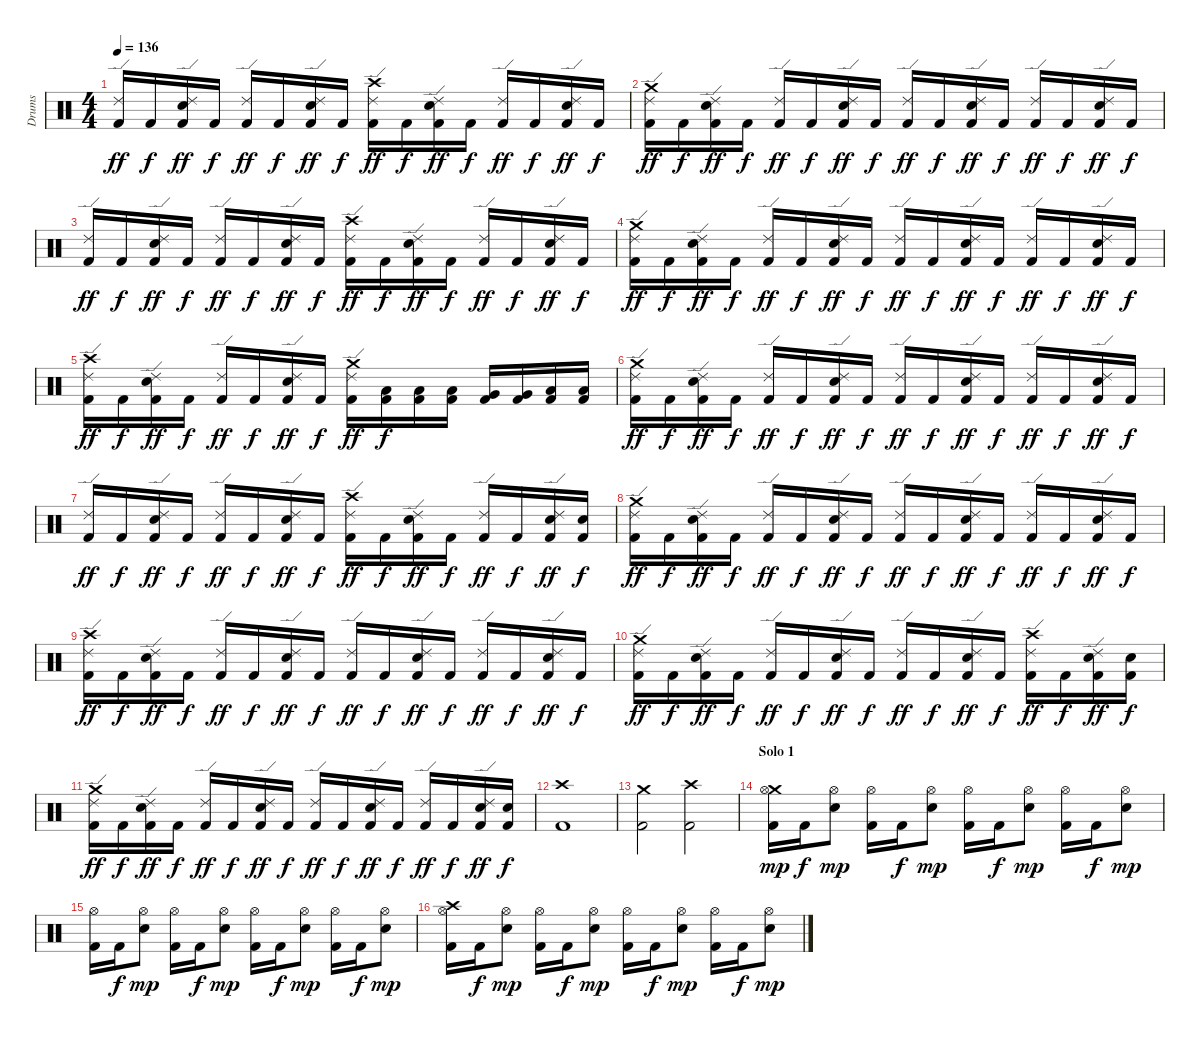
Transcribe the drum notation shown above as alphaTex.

\track ("Drums" "Drums") {instrument percussion}
\staff {score}
\articulation defaults
\ts (4 4)
\tempo 136
\clef neutral
\ks c
("Ride (edge) 2" "Kick (hit) 2").16{dy ff} "Kick (hit) 2".16{dy f} ("Ride (edge) 2" "Snare (hit) 2" "Kick (hit) 2").16{dy ff} "Kick (hit) 2".16{dy f} ("Ride (edge) 2" "Kick (hit) 2").16{dy ff} "Kick (hit) 2".16{dy f} ("Ride (edge) 2" "Snare (hit) 2" "Kick (hit) 2").16{dy ff} "Kick (hit) 2".16{dy f} ("Crash high (hit)" "Ride (edge) 2" "Kick (hit) 2").16{dy ff} "Kick (hit) 2".16{dy f} ("Ride (edge) 2" "Snare (hit) 2" "Kick (hit) 2").16{dy ff} "Kick (hit) 2".16{dy f} ("Ride (edge) 2" "Kick (hit) 2").16{dy ff} "Kick (hit) 2".16{dy f} ("Ride (edge) 2" "Snare (hit) 2" "Kick (hit) 2").16{dy ff} "Kick (hit) 2".16{dy f} |
("Crash medium (hit)" "Ride (edge) 2" "Kick (hit) 2").16{dy ff} "Kick (hit) 2".16{dy f} ("Ride (edge) 2" "Snare (hit) 2" "Kick (hit) 2").16{dy ff} "Kick (hit) 2".16{dy f} ("Ride (edge) 2" "Kick (hit) 2").16{dy ff} "Kick (hit) 2".16{dy f} ("Ride (edge) 2" "Snare (hit) 2" "Kick (hit) 2").16{dy ff} "Kick (hit) 2".16{dy f} ("Ride (edge) 2" "Kick (hit) 2").16{dy ff} "Kick (hit) 2".16{dy f} ("Ride (edge) 2" "Snare (hit) 2" "Kick (hit) 2").16{dy ff} "Kick (hit) 2".16{dy f} ("Ride (edge) 2" "Kick (hit) 2").16{dy ff} "Kick (hit) 2".16{dy f} ("Ride (edge) 2" "Snare (hit) 2" "Kick (hit) 2").16{dy ff} "Kick (hit) 2".16{dy f} |
("Ride (edge) 2" "Kick (hit) 2").16{dy ff} "Kick (hit) 2".16{dy f} ("Ride (edge) 2" "Snare (hit) 2" "Kick (hit) 2").16{dy ff} "Kick (hit) 2".16{dy f} ("Ride (edge) 2" "Kick (hit) 2").16{dy ff} "Kick (hit) 2".16{dy f} ("Ride (edge) 2" "Snare (hit) 2" "Kick (hit) 2").16{dy ff} "Kick (hit) 2".16{dy f} ("Crash high (hit)" "Ride (edge) 2" "Kick (hit) 2").16{dy ff} "Kick (hit) 2".16{dy f} ("Ride (edge) 2" "Snare (hit) 2" "Kick (hit) 2").16{dy ff} "Kick (hit) 2".16{dy f} ("Ride (edge) 2" "Kick (hit) 2").16{dy ff} "Kick (hit) 2".16{dy f} ("Ride (edge) 2" "Snare (hit) 2" "Kick (hit) 2").16{dy ff} "Kick (hit) 2".16{dy f} |
("Crash medium (hit)" "Ride (edge) 2" "Kick (hit) 2").16{dy ff} "Kick (hit) 2".16{dy f} ("Ride (edge) 2" "Snare (hit) 2" "Kick (hit) 2").16{dy ff} "Kick (hit) 2".16{dy f} ("Ride (edge) 2" "Kick (hit) 2").16{dy ff} "Kick (hit) 2".16{dy f} ("Ride (edge) 2" "Snare (hit) 2" "Kick (hit) 2").16{dy ff} "Kick (hit) 2".16{dy f} ("Ride (edge) 2" "Kick (hit) 2").16{dy ff} "Kick (hit) 2".16{dy f} ("Ride (edge) 2" "Snare (hit) 2" "Kick (hit) 2").16{dy ff} "Kick (hit) 2".16{dy f} ("Ride (edge) 2" "Kick (hit) 2").16{dy ff} "Kick (hit) 2".16{dy f} ("Ride (edge) 2" "Snare (hit) 2" "Kick (hit) 2").16{dy ff} "Kick (hit) 2".16{dy f} |
("Crash high (hit)" "Ride (edge) 2" "Kick (hit) 2").16{dy ff} "Kick (hit) 2".16{dy f} ("Ride (edge) 2" "Snare (hit) 2" "Kick (hit) 2").16{dy ff} "Kick (hit) 2".16{dy f} ("Ride (edge) 2" "Kick (hit) 2").16{dy ff} "Kick (hit) 2".16{dy f} ("Ride (edge) 2" "Snare (hit) 2" "Kick (hit) 2").16{dy ff} "Kick (hit) 2".16{dy f} ("Crash medium (hit)" "Ride (edge) 2" "Kick (hit) 2").16{dy ff} ("Low Tom (hit)" "Kick (hit) 2").16{dy f} ("Low Tom (hit)" "Kick (hit) 2").16 ("Low Tom (hit)" "Kick (hit) 2").16 ("Very Low Tom (hit)" "Kick (hit) 2").16 ("Very Low Tom (hit)" "Kick (hit) 2").16 ("Low Floor Tom (hit)" "Kick (hit) 2").16 ("Low Floor Tom (hit)" "Kick (hit) 2").16 |
("Crash medium (hit)" "Ride (edge) 2" "Kick (hit) 2").16{dy ff} "Kick (hit) 2".16{dy f} ("Ride (edge) 2" "Snare (hit) 2" "Kick (hit) 2").16{dy ff} "Kick (hit) 2".16{dy f} ("Ride (edge) 2" "Kick (hit) 2").16{dy ff} "Kick (hit) 2".16{dy f} ("Ride (edge) 2" "Snare (hit) 2" "Kick (hit) 2").16{dy ff} "Kick (hit) 2".16{dy f} ("Ride (edge) 2" "Kick (hit) 2").16{dy ff} "Kick (hit) 2".16{dy f} ("Ride (edge) 2" "Snare (hit) 2" "Kick (hit) 2").16{dy ff} "Kick (hit) 2".16{dy f} ("Ride (edge) 2" "Kick (hit) 2").16{dy ff} "Kick (hit) 2".16{dy f} ("Ride (edge) 2" "Snare (hit) 2" "Kick (hit) 2").16{dy ff} "Kick (hit) 2".16{dy f} |
("Ride (edge) 2" "Kick (hit) 2").16{dy ff} "Kick (hit) 2".16{dy f} ("Ride (edge) 2" "Snare (hit) 2" "Kick (hit) 2").16{dy ff} "Kick (hit) 2".16{dy f} ("Ride (edge) 2" "Kick (hit) 2").16{dy ff} "Kick (hit) 2".16{dy f} ("Ride (edge) 2" "Snare (hit) 2" "Kick (hit) 2").16{dy ff} "Kick (hit) 2".16{dy f} ("Crash high (hit)" "Ride (edge) 2" "Kick (hit) 2").16{dy ff} "Kick (hit) 2".16{dy f} ("Ride (edge) 2" "Snare (hit) 2" "Kick (hit) 2").16{dy ff} "Kick (hit) 2".16{dy f} ("Ride (edge) 2" "Kick (hit) 2").16{dy ff} "Kick (hit) 2".16{dy f} ("Ride (edge) 2" "Snare (hit) 2" "Kick (hit) 2").16{dy ff} ("Snare (hit) 2" "Kick (hit) 2").16{dy f} |
("Crash medium (hit)" "Ride (edge) 2" "Kick (hit) 2").16{dy ff} "Kick (hit) 2".16{dy f} ("Ride (edge) 2" "Snare (hit) 2" "Kick (hit) 2").16{dy ff} "Kick (hit) 2".16{dy f} ("Ride (edge) 2" "Kick (hit) 2").16{dy ff} "Kick (hit) 2".16{dy f} ("Ride (edge) 2" "Snare (hit) 2" "Kick (hit) 2").16{dy ff} "Kick (hit) 2".16{dy f} ("Ride (edge) 2" "Kick (hit) 2").16{dy ff} "Kick (hit) 2".16{dy f} ("Ride (edge) 2" "Snare (hit) 2" "Kick (hit) 2").16{dy ff} "Kick (hit) 2".16{dy f} ("Ride (edge) 2" "Kick (hit) 2").16{dy ff} "Kick (hit) 2".16{dy f} ("Ride (edge) 2" "Snare (hit) 2" "Kick (hit) 2").16{dy ff} "Kick (hit) 2".16{dy f} |
("Crash high (hit)" "Ride (edge) 2" "Kick (hit) 2").16{dy ff} "Kick (hit) 2".16{dy f} ("Ride (edge) 2" "Snare (hit) 2" "Kick (hit) 2").16{dy ff} "Kick (hit) 2".16{dy f} ("Ride (edge) 2" "Kick (hit) 2").16{dy ff} "Kick (hit) 2".16{dy f} ("Ride (edge) 2" "Snare (hit) 2" "Kick (hit) 2").16{dy ff} "Kick (hit) 2".16{dy f} ("Ride (edge) 2" "Kick (hit) 2").16{dy ff} "Kick (hit) 2".16{dy f} ("Ride (edge) 2" "Snare (hit) 2" "Kick (hit) 2").16{dy ff} "Kick (hit) 2".16{dy f} ("Ride (edge) 2" "Kick (hit) 2").16{dy ff} "Kick (hit) 2".16{dy f} ("Ride (edge) 2" "Snare (hit) 2" "Kick (hit) 2").16{dy ff} "Kick (hit) 2".16{dy f} |
("Crash medium (hit)" "Ride (edge) 2" "Kick (hit) 2").16{dy ff} "Kick (hit) 2".16{dy f} ("Ride (edge) 2" "Snare (hit) 2" "Kick (hit) 2").16{dy ff} "Kick (hit) 2".16{dy f} ("Ride (edge) 2" "Kick (hit) 2").16{dy ff} "Kick (hit) 2".16{dy f} ("Ride (edge) 2" "Snare (hit) 2" "Kick (hit) 2").16{dy ff} "Kick (hit) 2".16{dy f} ("Ride (edge) 2" "Kick (hit) 2").16{dy ff} "Kick (hit) 2".16{dy f} ("Ride (edge) 2" "Snare (hit) 2" "Kick (hit) 2").16{dy ff} "Kick (hit) 2".16{dy f} ("Crash high (hit)" "Ride (edge) 2" "Kick (hit) 2").16{dy ff} "Kick (hit) 2".16{dy f} ("Ride (edge) 2" "Snare (hit) 2" "Kick (hit) 2").16{dy ff} ("Snare (hit) 2" "Kick (hit) 2").16{dy f} |
("Crash medium (hit)" "Ride (edge) 2" "Kick (hit) 2").16{dy ff} "Kick (hit) 2".16{dy f} ("Ride (edge) 2" "Snare (hit) 2" "Kick (hit) 2").16{dy ff} "Kick (hit) 2".16{dy f} ("Ride (edge) 2" "Kick (hit) 2").16{dy ff} "Kick (hit) 2".16{dy f} ("Ride (edge) 2" "Snare (hit) 2" "Kick (hit) 2").16{dy ff} "Kick (hit) 2".16{dy f} ("Ride (edge) 2" "Kick (hit) 2").16{dy ff} "Kick (hit) 2".16{dy f} ("Ride (edge) 2" "Snare (hit) 2" "Kick (hit) 2").16{dy ff} "Kick (hit) 2".16{dy f} ("Ride (edge) 2" "Kick (hit) 2").16{dy ff} "Kick (hit) 2".16{dy f} ("Ride (edge) 2" "Snare (hit) 2" "Kick (hit) 2").16{dy ff} ("Snare (hit) 2" "Kick (hit) 2").16{dy f} |
("Crash high (hit)" "Kick (hit) 2").1 |
("Crash medium (hit)" "Kick (hit) 2").2 ("Crash high (hit)" "Kick (hit) 2").2 |
\section ("" "Solo 1")
("Crash medium (hit)" "Hi-Hat (open)" "Kick (hit) 2").16{dy mp} "Kick (hit) 2".16{dy f} ("Hi-Hat (open)" "Snare (hit) 2").8{dy mp} ("Hi-Hat (open)" "Kick (hit) 2").16 "Kick (hit) 2".16{dy f} ("Hi-Hat (open)" "Snare (hit) 2").8{dy mp} ("Hi-Hat (open)" "Kick (hit) 2").16 "Kick (hit) 2".16{dy f} ("Hi-Hat (open)" "Snare (hit) 2").8{dy mp} ("Hi-Hat (open)" "Kick (hit) 2").16 "Kick (hit) 2".16{dy f} ("Hi-Hat (open)" "Snare (hit) 2").8{dy mp} |
("Hi-Hat (open)" "Kick (hit) 2").16 "Kick (hit) 2".16{dy f} ("Hi-Hat (open)" "Snare (hit) 2").8{dy mp} ("Hi-Hat (open)" "Kick (hit) 2").16 "Kick (hit) 2".16{dy f} ("Hi-Hat (open)" "Snare (hit) 2").8{dy mp} ("Hi-Hat (open)" "Kick (hit) 2").16 "Kick (hit) 2".16{dy f} ("Hi-Hat (open)" "Snare (hit) 2").8{dy mp} ("Hi-Hat (open)" "Kick (hit) 2").16 "Kick (hit) 2".16{dy f} ("Hi-Hat (open)" "Snare (hit) 2").8{dy mp} |
("Crash high (hit)" "Hi-Hat (open)" "Kick (hit) 2").16 "Kick (hit) 2".16{dy f} ("Hi-Hat (open)" "Snare (hit) 2").8{dy mp} ("Hi-Hat (open)" "Kick (hit) 2").16 "Kick (hit) 2".16{dy f} ("Hi-Hat (open)" "Snare (hit) 2").8{dy mp} ("Hi-Hat (open)" "Kick (hit) 2").16 "Kick (hit) 2".16{dy f} ("Hi-Hat (open)" "Snare (hit) 2").8{dy mp} ("Hi-Hat (open)" "Kick (hit) 2").16 "Kick (hit) 2".16{dy f} ("Hi-Hat (open)" "Snare (hit) 2").8{dy mp}
